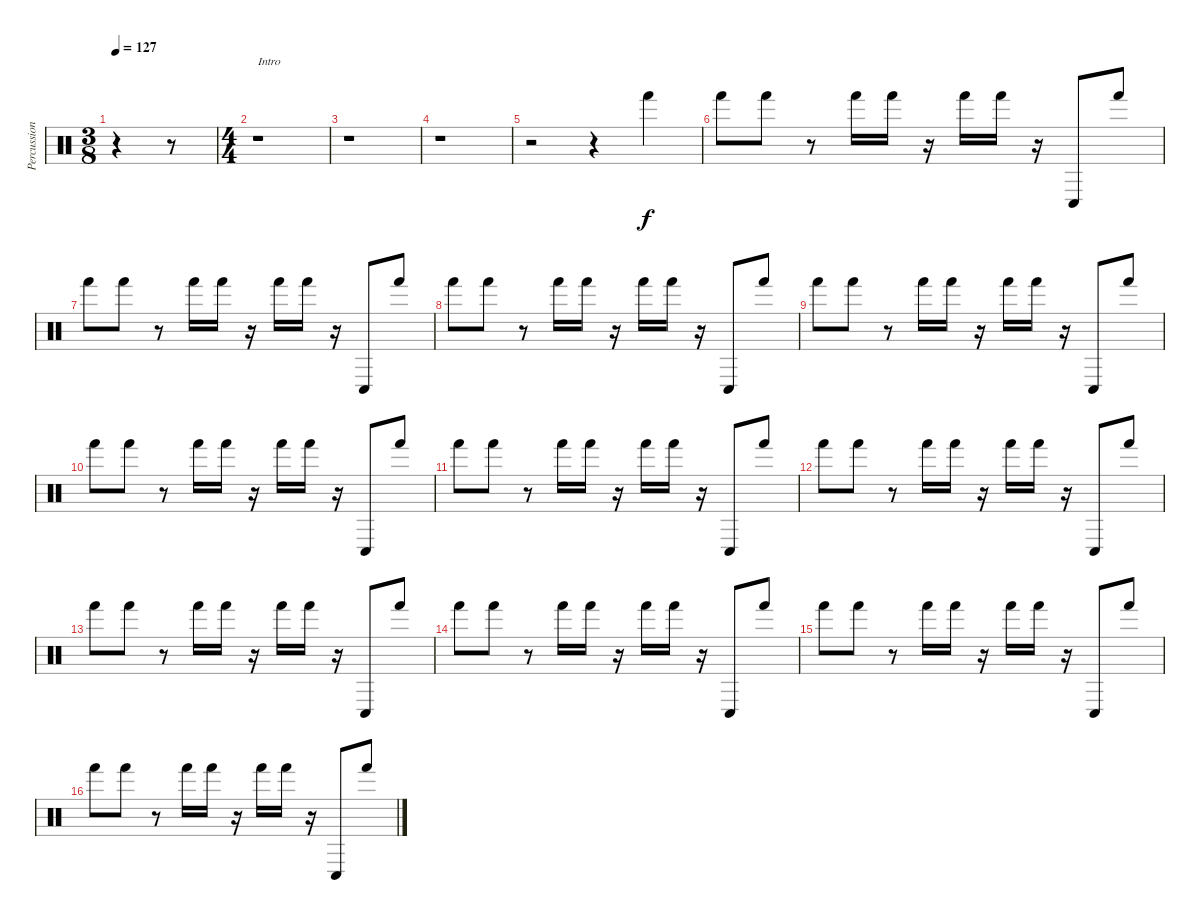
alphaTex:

\track ("Percussions" "Percussion") {instrument percussion}
\staff {score}
\articulation defaults
\ts (3 8)
\tempo 127
\clef neutral
\ks c
r.4{dy f} r.8 |
\ts (4 4)
r.1{txt "Intro"} |
r.1 |
r.1 |
r.2 r.4 "Hand (hit)".4 |
"Hand (hit)".8 "Hand (hit)".8 r.8 "Hand (hit)".16 "Hand (hit)".16 r.16 "Hand (hit)".16 "Hand (hit)".16 r.16 "Conga low (hit)".8 "Hand (hit)".8 |
"Hand (hit)".8 "Hand (hit)".8 r.8 "Hand (hit)".16 "Hand (hit)".16 r.16 "Hand (hit)".16 "Hand (hit)".16 r.16 "Conga low (hit)".8 "Hand (hit)".8 |
"Hand (hit)".8 "Hand (hit)".8 r.8 "Hand (hit)".16 "Hand (hit)".16 r.16 "Hand (hit)".16 "Hand (hit)".16 r.16 "Conga low (hit)".8 "Hand (hit)".8 |
"Hand (hit)".8 "Hand (hit)".8 r.8 "Hand (hit)".16 "Hand (hit)".16 r.16 "Hand (hit)".16 "Hand (hit)".16 r.16 "Conga low (hit)".8 "Hand (hit)".8 |
"Hand (hit)".8 "Hand (hit)".8 r.8 "Hand (hit)".16 "Hand (hit)".16 r.16 "Hand (hit)".16 "Hand (hit)".16 r.16 "Conga low (hit)".8 "Hand (hit)".8 |
"Hand (hit)".8 "Hand (hit)".8 r.8 "Hand (hit)".16 "Hand (hit)".16 r.16 "Hand (hit)".16 "Hand (hit)".16 r.16 "Conga low (hit)".8 "Hand (hit)".8 |
"Hand (hit)".8 "Hand (hit)".8 r.8 "Hand (hit)".16 "Hand (hit)".16 r.16 "Hand (hit)".16 "Hand (hit)".16 r.16 "Conga low (hit)".8 "Hand (hit)".8 |
"Hand (hit)".8 "Hand (hit)".8 r.8 "Hand (hit)".16 "Hand (hit)".16 r.16 "Hand (hit)".16 "Hand (hit)".16 r.16 "Conga low (hit)".8 "Hand (hit)".8 |
"Hand (hit)".8 "Hand (hit)".8 r.8 "Hand (hit)".16 "Hand (hit)".16 r.16 "Hand (hit)".16 "Hand (hit)".16 r.16 "Conga low (hit)".8 "Hand (hit)".8 |
"Hand (hit)".8 "Hand (hit)".8 r.8 "Hand (hit)".16 "Hand (hit)".16 r.16 "Hand (hit)".16 "Hand (hit)".16 r.16 "Conga low (hit)".8 "Hand (hit)".8 |
"Hand (hit)".8 "Hand (hit)".8 r.8 "Hand (hit)".16 "Hand (hit)".16 r.16 "Hand (hit)".16 "Hand (hit)".16 r.16 "Conga low (hit)".8 "Hand (hit)".8
